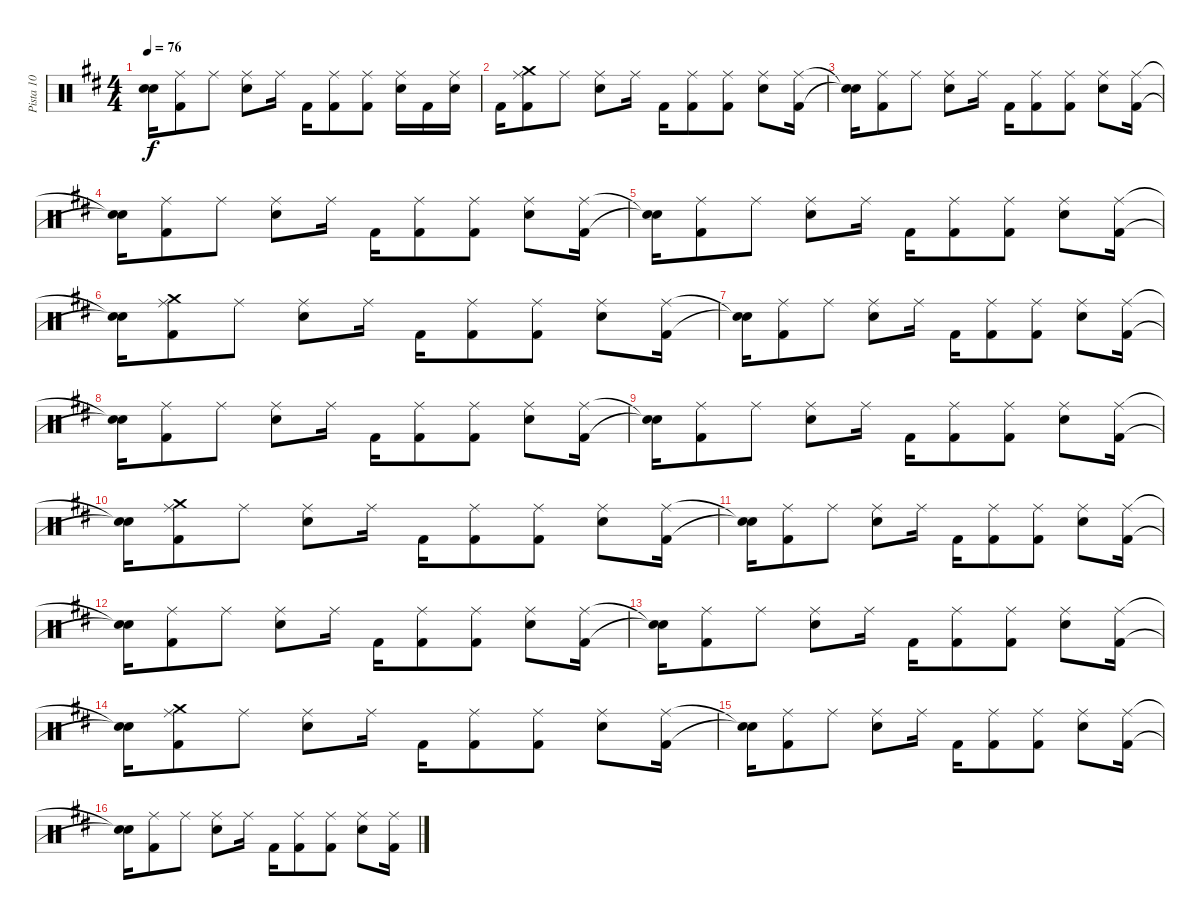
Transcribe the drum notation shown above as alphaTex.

\track ("Pista 10" "Pista 10") {instrument percussion}
\staff {score}
\articulation defaults
\ts (4 4)
\tempo 76
\clef neutral
\ks d
("Snare (hit)"{t} "Snare (hit)"{t}).16{dy f} ("Kick (hit) 2" "Ride (middle)").8 "Ride (middle)".8 ("Snare (hit) 2" "Ride (middle)").8 "Ride (middle)".16 "Kick (hit) 2".16 ("Kick (hit) 2" "Ride (middle)").8 ("Kick (hit) 2" "Ride (middle)").8 ("Snare (hit) 2" "Ride (middle)").16 "Kick (hit) 2".16 ("Snare (hit) 2" "Ride (middle)").16 |
"Kick (hit) 2".16 ("Kick (hit) 2" "Crash medium (hit)" "Ride (middle)").8 "Ride (middle)".8 ("Snare (hit) 2" "Ride (middle)").8 "Ride (middle)".16 "Kick (hit) 2".16 ("Kick (hit) 2" "Ride (middle)").8 ("Kick (hit) 2" "Ride (middle)").8 ("Snare (hit) 2" "Ride (middle)").8 ("Kick (hit) 2" "Ride (middle)").16 |
("Snare (hit)"{t} "Snare (hit)"{t}).16 ("Kick (hit) 2" "Ride (middle)").8 "Ride (middle)".8 ("Snare (hit) 2" "Ride (middle)").8 "Ride (middle)".16 "Kick (hit) 2".16 ("Kick (hit) 2" "Ride (middle)").8 ("Kick (hit) 2" "Ride (middle)").8 ("Snare (hit) 2" "Ride (middle)").8 ("Kick (hit) 2" "Ride (middle)").16 |
("Snare (hit)"{t} "Snare (hit)"{t}).16 ("Kick (hit) 2" "Ride (middle)").8 "Ride (middle)".8 ("Snare (hit) 2" "Ride (middle)").8 "Ride (middle)".16 "Kick (hit) 2".16 ("Kick (hit) 2" "Ride (middle)").8 ("Kick (hit) 2" "Ride (middle)").8 ("Snare (hit) 2" "Ride (middle)").8 ("Kick (hit) 2" "Ride (middle)").16 |
("Snare (hit)"{t} "Snare (hit)"{t}).16 ("Kick (hit) 2" "Ride (middle)").8 "Ride (middle)".8 ("Snare (hit) 2" "Ride (middle)").8 "Ride (middle)".16 "Kick (hit) 2".16 ("Kick (hit) 2" "Ride (middle)").8 ("Kick (hit) 2" "Ride (middle)").8 ("Snare (hit) 2" "Ride (middle)").8 ("Kick (hit) 2" "Ride (middle)").16 |
("Snare (hit)"{t} "Snare (hit)"{t}).16 ("Kick (hit) 2" "Crash medium (hit)" "Ride (middle)").8 "Ride (middle)".8 ("Snare (hit) 2" "Ride (middle)").8 "Ride (middle)".16 "Kick (hit) 2".16 ("Kick (hit) 2" "Ride (middle)").8 ("Kick (hit) 2" "Ride (middle)").8 ("Snare (hit) 2" "Ride (middle)").8 ("Kick (hit) 2" "Ride (middle)").16 |
("Snare (hit)"{t} "Snare (hit)"{t}).16 ("Kick (hit) 2" "Ride (middle)").8 "Ride (middle)".8 ("Snare (hit) 2" "Ride (middle)").8 "Ride (middle)".16 "Kick (hit) 2".16 ("Kick (hit) 2" "Ride (middle)").8 ("Kick (hit) 2" "Ride (middle)").8 ("Snare (hit) 2" "Ride (middle)").8 ("Kick (hit) 2" "Ride (middle)").16 |
("Snare (hit)"{t} "Snare (hit)"{t}).16 ("Kick (hit) 2" "Ride (middle)").8 "Ride (middle)".8 ("Snare (hit) 2" "Ride (middle)").8 "Ride (middle)".16 "Kick (hit) 2".16 ("Kick (hit) 2" "Ride (middle)").8 ("Kick (hit) 2" "Ride (middle)").8 ("Snare (hit) 2" "Ride (middle)").8 ("Kick (hit) 2" "Ride (middle)").16 |
("Snare (hit)"{t} "Snare (hit)"{t}).16 ("Kick (hit) 2" "Ride (middle)").8 "Ride (middle)".8 ("Snare (hit) 2" "Ride (middle)").8 "Ride (middle)".16 "Kick (hit) 2".16 ("Kick (hit) 2" "Ride (middle)").8 ("Kick (hit) 2" "Ride (middle)").8 ("Snare (hit) 2" "Ride (middle)").8 ("Kick (hit) 2" "Ride (middle)").16 |
("Snare (hit)"{t} "Snare (hit)"{t}).16 ("Kick (hit) 2" "Crash medium (hit)" "Ride (middle)").8 "Ride (middle)".8 ("Snare (hit) 2" "Ride (middle)").8 "Ride (middle)".16 "Kick (hit) 2".16 ("Kick (hit) 2" "Ride (middle)").8 ("Kick (hit) 2" "Ride (middle)").8 ("Snare (hit) 2" "Ride (middle)").8 ("Kick (hit) 2" "Ride (middle)").16 |
("Snare (hit)"{t} "Snare (hit)"{t}).16 ("Kick (hit) 2" "Ride (middle)").8 "Ride (middle)".8 ("Snare (hit) 2" "Ride (middle)").8 "Ride (middle)".16 "Kick (hit) 2".16 ("Kick (hit) 2" "Ride (middle)").8 ("Kick (hit) 2" "Ride (middle)").8 ("Snare (hit) 2" "Ride (middle)").8 ("Kick (hit) 2" "Ride (middle)").16 |
("Snare (hit)"{t} "Snare (hit)"{t}).16 ("Kick (hit) 2" "Ride (middle)").8 "Ride (middle)".8 ("Snare (hit) 2" "Ride (middle)").8 "Ride (middle)".16 "Kick (hit) 2".16 ("Kick (hit) 2" "Ride (middle)").8 ("Kick (hit) 2" "Ride (middle)").8 ("Snare (hit) 2" "Ride (middle)").8 ("Kick (hit) 2" "Ride (middle)").16 |
("Snare (hit)"{t} "Snare (hit)"{t}).16 ("Kick (hit) 2" "Ride (middle)").8 "Ride (middle)".8 ("Snare (hit) 2" "Ride (middle)").8 "Ride (middle)".16 "Kick (hit) 2".16 ("Kick (hit) 2" "Ride (middle)").8 ("Kick (hit) 2" "Ride (middle)").8 ("Snare (hit) 2" "Ride (middle)").8 ("Kick (hit) 2" "Ride (middle)").16 |
("Snare (hit)"{t} "Snare (hit)"{t}).16 ("Kick (hit) 2" "Crash medium (hit)" "Ride (middle)").8 "Ride (middle)".8 ("Snare (hit) 2" "Ride (middle)").8 "Ride (middle)".16 "Kick (hit) 2".16 ("Kick (hit) 2" "Ride (middle)").8 ("Kick (hit) 2" "Ride (middle)").8 ("Snare (hit) 2" "Ride (middle)").8 ("Kick (hit) 2" "Ride (middle)").16 |
("Snare (hit)"{t} "Snare (hit)"{t}).16 ("Kick (hit) 2" "Ride (middle)").8 "Ride (middle)".8 ("Snare (hit) 2" "Ride (middle)").8 "Ride (middle)".16 "Kick (hit) 2".16 ("Kick (hit) 2" "Ride (middle)").8 ("Kick (hit) 2" "Ride (middle)").8 ("Snare (hit) 2" "Ride (middle)").8 ("Kick (hit) 2" "Ride (middle)").16 |
("Snare (hit)"{t} "Snare (hit)"{t}).16 ("Kick (hit) 2" "Ride (middle)").8 "Ride (middle)".8 ("Snare (hit) 2" "Ride (middle)").8 "Ride (middle)".16 "Kick (hit) 2".16 ("Kick (hit) 2" "Ride (middle)").8 ("Kick (hit) 2" "Ride (middle)").8 ("Snare (hit) 2" "Ride (middle)").8 ("Kick (hit) 2" "Ride (middle)").16
